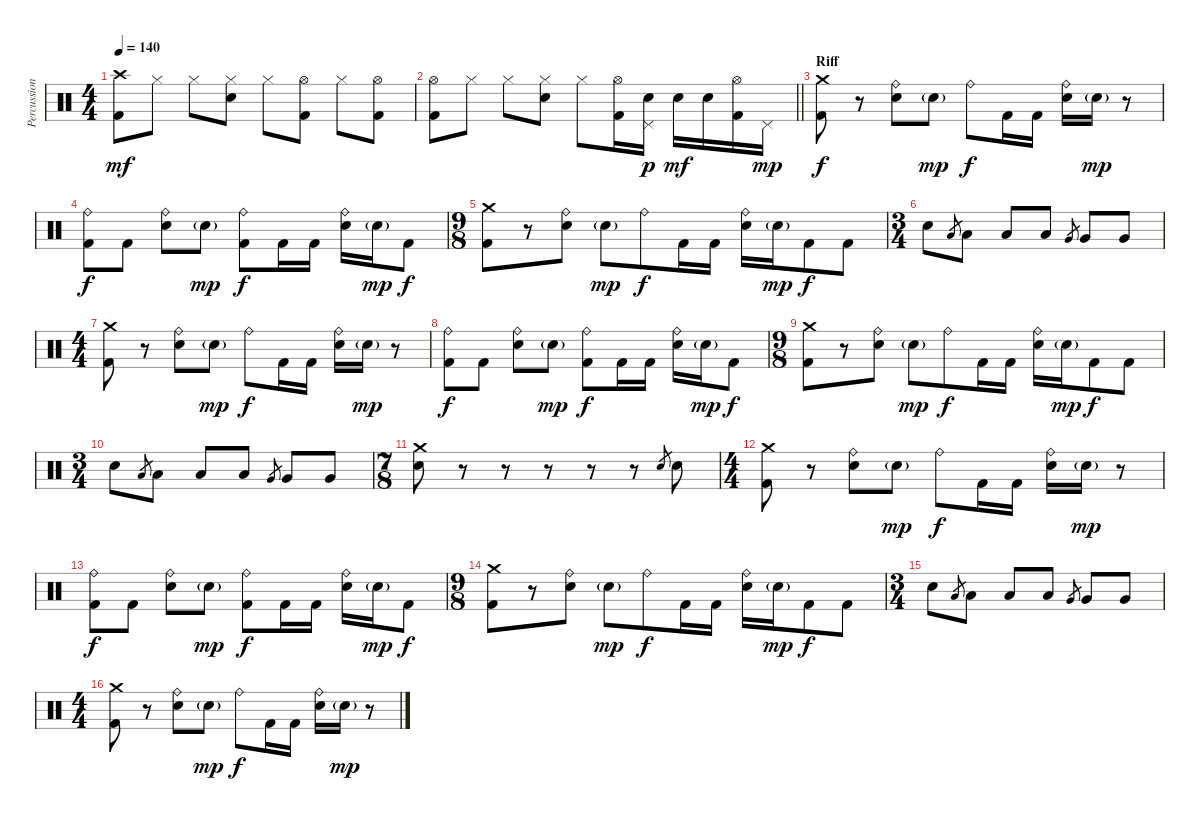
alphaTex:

\track ("Percussion" "Percussion") {instrument percussion}
\staff {score}
\articulation defaults
\ts (4 4)
\tempo 140
\clef neutral
\ks c
("Crash high (hit)" "Kick (hit) 2").8{dy mf} "Hi-Hat (closed)".8 "Hi-Hat (closed)".8 ("Hi-Hat (closed)" "Snare (hit) 2").8 "Hi-Hat (closed)".8 ("Hi-Hat (open)" "Kick (hit) 2").8 "Hi-Hat (closed)".8 ("Hi-Hat (open)" "Kick (hit) 2").8 |
\barLineRight lightlight
("Hi-Hat (open)" "Kick (hit) 2").8 "Hi-Hat (closed)".8 "Hi-Hat (closed)".8 ("Hi-Hat (closed)" "Snare (hit) 2").8 "Hi-Hat (closed)".8 ("Hi-Hat (open)" "Kick (hit) 2").16 ("Pedal Hi-Hat (hit)" "Snare (hit) 2").16{dy p} "Snare (hit) 2".16{dy mf} "Snare (hit) 2".16 ("Hi-Hat (open)" "Kick (hit) 2").16 "Pedal Hi-Hat (hit)".16{dy mp} |
\section ("" "Riff")
("Crash medium (hit)" "Kick (hit) 2").8{dy f} r.8 ("Ride (bell)" "Snare (hit) 2").8 "Snare (hit) 2"{g}.8{dy mp} "Ride (bell)".8{dy f} "Kick (hit) 2".16 "Kick (hit) 2".16 ("Ride (bell)" "Snare (hit) 2").16 "Snare (hit) 2"{g}.16{dy mp} r.8 |
("Ride (bell)" "Kick (hit) 2").8{dy f} "Kick (hit) 2".8 ("Ride (bell)" "Snare (hit) 2").8 "Snare (hit) 2"{g}.8{dy mp} ("Ride (bell)" "Kick (hit) 2").8{dy f} "Kick (hit) 2".16 "Kick (hit) 2".16 ("Ride (bell)" "Snare (hit) 2").16 "Snare (hit) 2"{g}.16{dy mp} "Kick (hit) 2".8{dy f} |
\ts (9 8)
("Crash medium (hit)" "Kick (hit) 2").8 r.8 ("Ride (bell)" "Snare (hit) 2").8 "Snare (hit) 2"{g}.8{dy mp} "Ride (bell)".8{dy f} "Kick (hit) 2".16 "Kick (hit) 2".16 ("Ride (bell)" "Snare (hit) 2").16 "Snare (hit) 2"{g}.16{dy mp} "Kick (hit) 2".8{dy f} "Kick (hit) 2".8 |
\ts (3 4)
"Snare (hit) 2".8 "Low Tom (hit)".8{gr} "Low Tom (hit)".8 "Low Tom (hit)".8 "Low Tom (hit)".8 "Very Low Tom (hit)".8{gr} "Very Low Tom (hit)".8 "Very Low Tom (hit)".8 |
\ts (4 4)
("Crash medium (hit)" "Kick (hit) 2").8 r.8 ("Ride (bell)" "Snare (hit) 2").8 "Snare (hit) 2"{g}.8{dy mp} "Ride (bell)".8{dy f} "Kick (hit) 2".16 "Kick (hit) 2".16 ("Ride (bell)" "Snare (hit) 2").16 "Snare (hit) 2"{g}.16{dy mp} r.8 |
("Ride (bell)" "Kick (hit) 2").8{dy f} "Kick (hit) 2".8 ("Ride (bell)" "Snare (hit) 2").8 "Snare (hit) 2"{g}.8{dy mp} ("Ride (bell)" "Kick (hit) 2").8{dy f} "Kick (hit) 2".16 "Kick (hit) 2".16 ("Ride (bell)" "Snare (hit) 2").16 "Snare (hit) 2"{g}.16{dy mp} "Kick (hit) 2".8{dy f} |
\ts (9 8)
("Crash medium (hit)" "Kick (hit) 2").8 r.8 ("Ride (bell)" "Snare (hit) 2").8 "Snare (hit) 2"{g}.8{dy mp} "Ride (bell)".8{dy f} "Kick (hit) 2".16 "Kick (hit) 2".16 ("Ride (bell)" "Snare (hit) 2").16 "Snare (hit) 2"{g}.16{dy mp} "Kick (hit) 2".8{dy f} "Kick (hit) 2".8 |
\ts (3 4)
"Snare (hit) 2".8 "Low Tom (hit)".8{gr} "Low Tom (hit)".8 "Low Tom (hit)".8 "Low Tom (hit)".8 "Very Low Tom (hit)".8{gr} "Very Low Tom (hit)".8 "Very Low Tom (hit)".8 |
\ts (7 8)
("Crash medium (hit)" "Snare (hit) 2").8 r.8 r.8 r.8 r.8 r.8 "Snare (hit) 2".8{gr} "Snare (hit) 2".8 |
\ts (4 4)
("Crash medium (hit)" "Kick (hit) 2").8 r.8 ("Ride (bell)" "Snare (hit) 2").8 "Snare (hit) 2"{g}.8{dy mp} "Ride (bell)".8{dy f} "Kick (hit) 2".16 "Kick (hit) 2".16 ("Ride (bell)" "Snare (hit) 2").16 "Snare (hit) 2"{g}.16{dy mp} r.8 |
("Ride (bell)" "Kick (hit) 2").8{dy f} "Kick (hit) 2".8 ("Ride (bell)" "Snare (hit) 2").8 "Snare (hit) 2"{g}.8{dy mp} ("Ride (bell)" "Kick (hit) 2").8{dy f} "Kick (hit) 2".16 "Kick (hit) 2".16 ("Ride (bell)" "Snare (hit) 2").16 "Snare (hit) 2"{g}.16{dy mp} "Kick (hit) 2".8{dy f} |
\ts (9 8)
("Crash medium (hit)" "Kick (hit) 2").8 r.8 ("Ride (bell)" "Snare (hit) 2").8 "Snare (hit) 2"{g}.8{dy mp} "Ride (bell)".8{dy f} "Kick (hit) 2".16 "Kick (hit) 2".16 ("Ride (bell)" "Snare (hit) 2").16 "Snare (hit) 2"{g}.16{dy mp} "Kick (hit) 2".8{dy f} "Kick (hit) 2".8 |
\ts (3 4)
"Snare (hit) 2".8 "Low Tom (hit)".8{gr} "Low Tom (hit)".8 "Low Tom (hit)".8 "Low Tom (hit)".8 "Very Low Tom (hit)".8{gr} "Very Low Tom (hit)".8 "Very Low Tom (hit)".8 |
\ts (4 4)
("Crash medium (hit)" "Kick (hit) 2").8 r.8 ("Ride (bell)" "Snare (hit) 2").8 "Snare (hit) 2"{g}.8{dy mp} "Ride (bell)".8{dy f} "Kick (hit) 2".16 "Kick (hit) 2".16 ("Ride (bell)" "Snare (hit) 2").16 "Snare (hit) 2"{g}.16{dy mp} r.8
